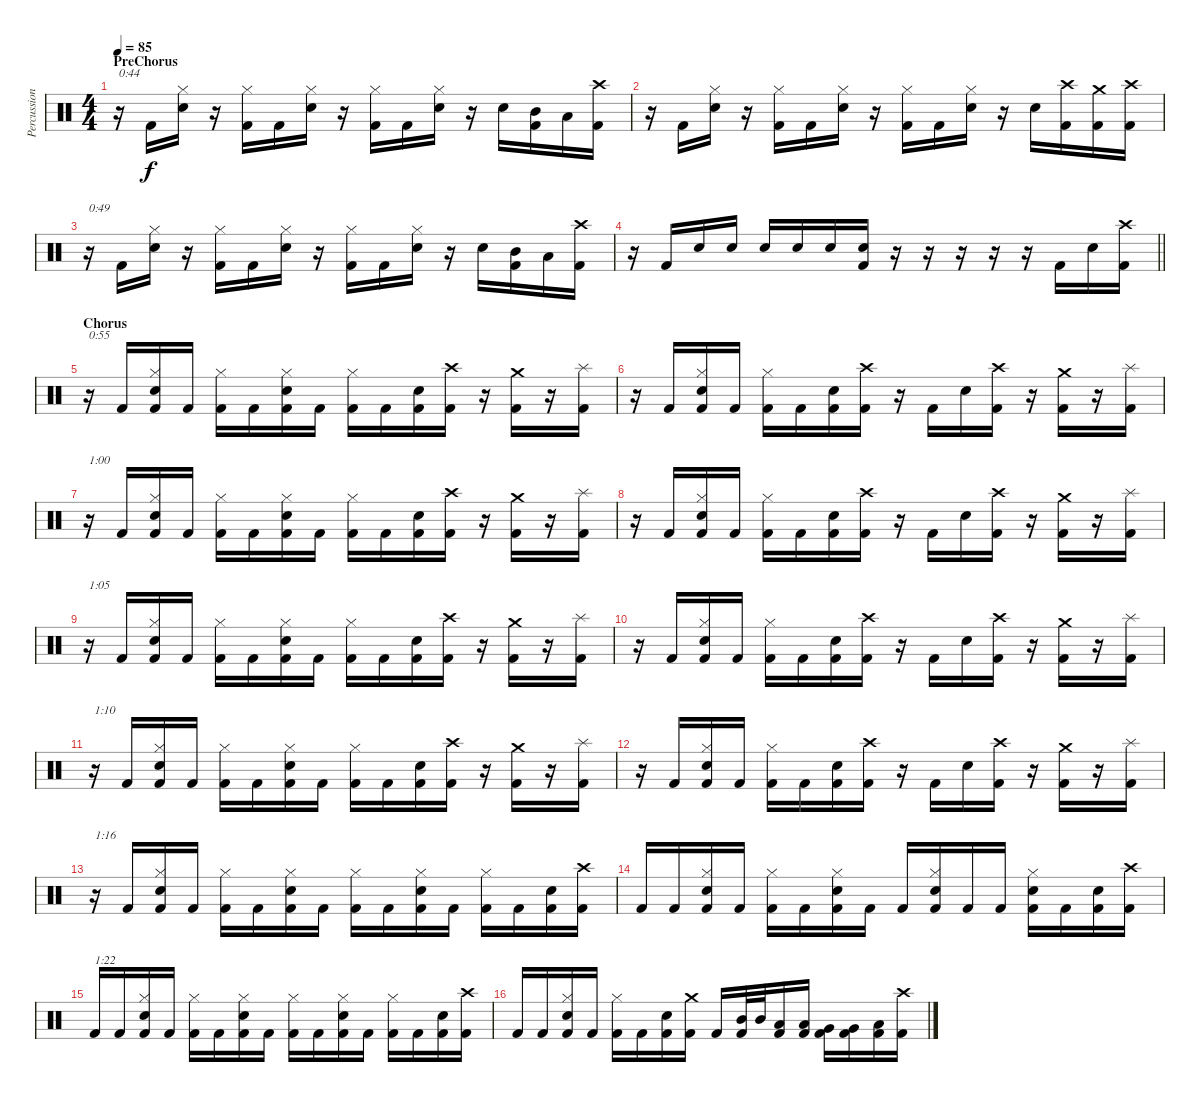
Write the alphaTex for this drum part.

\track ("Percussion" "Percussion") {instrument percussion}
\staff {score}
\articulation defaults
\ts (4 4)
\section ("" "PreChorus")
\tempo 85
\clef neutral
\ks c
r.16{txt "0:44" dy f} "Kick (hit) 2".16 ("Hi-Hat (closed)" "Snare (hit) 2").16 r.16 ("Hi-Hat (closed)" "Kick (hit) 2").16 "Kick (hit) 2".16 ("Hi-Hat (closed)" "Snare (hit) 2").16 r.16 ("Hi-Hat (closed)" "Kick (hit) 2").16 "Kick (hit) 2".16 ("Hi-Hat (closed)" "Snare (hit) 2").16 r.16 "Snare (hit) 2".16 ("Mid Tom (hit)" "Kick (hit) 2").16 "Low Tom (hit)".16 ("Crash high (hit)" "Kick (hit) 2").16 |
r.16 "Kick (hit) 2".16 ("Hi-Hat (closed)" "Snare (hit) 2").16 r.16 ("Hi-Hat (closed)" "Kick (hit) 2").16 "Kick (hit) 2".16 ("Hi-Hat (closed)" "Snare (hit) 2").16 r.16 ("Hi-Hat (closed)" "Kick (hit) 2").16 "Kick (hit) 2".16 ("Hi-Hat (closed)" "Snare (hit) 2").16 r.16 "Snare (hit) 2".16 ("Crash high (hit)" "Kick (hit) 2").16 ("Crash medium (hit)" "Kick (hit) 2").16 ("Crash high (hit)" "Kick (hit) 2").16 |
r.16{txt "0:49"} "Kick (hit) 2".16 ("Hi-Hat (closed)" "Snare (hit) 2").16 r.16 ("Hi-Hat (closed)" "Kick (hit) 2").16 "Kick (hit) 2".16 ("Hi-Hat (closed)" "Snare (hit) 2").16 r.16 ("Hi-Hat (closed)" "Kick (hit) 2").16 "Kick (hit) 2".16 ("Hi-Hat (closed)" "Snare (hit) 2").16 r.16 "Snare (hit) 2".16 ("Mid Tom (hit)" "Kick (hit) 2").16 "Low Tom (hit)".16 ("Crash high (hit)" "Kick (hit) 2").16 |
\barLineRight lightlight
r.16 "Kick (hit) 2".16 "Snare (hit) 2".16 "Snare (hit) 2".16 "Snare (hit) 2".16 "Snare (hit) 2".16 "Snare (hit) 2".16 ("Snare (hit) 2" "Kick (hit) 2").16 r.16 r.16 r.16 r.16 r.16 "Kick (hit) 2".16 "Snare (hit) 2".16 ("Crash high (hit)" "Kick (hit) 2").16 |
\section ("" "Chorus")
r.16{txt "0:55"} "Kick (hit) 2".16 ("Hi-Hat (closed)" "Snare (hit) 2" "Kick (hit) 2").16 "Kick (hit) 2".16 ("Hi-Hat (closed)" "Kick (hit) 2").16 "Kick (hit) 2".16 ("Hi-Hat (closed)" "Snare (hit) 2" "Kick (hit) 2").16 "Kick (hit) 2".16 ("Hi-Hat (closed)" "Kick (hit) 2").16 "Kick (hit) 2".16 ("Snare (hit) 2" "Kick (hit) 2").16 ("Crash high (hit)" "Kick (hit) 2").16 r.16 ("Crash medium (hit)" "Kick (hit) 2").16 r.16 ("Splash (hit)" "Kick (hit) 2").16 |
r.16 "Kick (hit) 2".16 ("Hi-Hat (closed)" "Snare (hit) 2" "Kick (hit) 2").16 "Kick (hit) 2".16 ("Hi-Hat (closed)" "Kick (hit) 2").16 "Kick (hit) 2".16 ("Snare (hit) 2" "Kick (hit) 2").16 ("Crash high (hit)" "Kick (hit) 2").16 r.16 "Kick (hit) 2".16 "Snare (hit) 2".16 ("Crash high (hit)" "Kick (hit) 2").16 r.16 ("Crash medium (hit)" "Kick (hit) 2").16 r.16 ("Splash (hit)" "Kick (hit) 2").16 |
r.16{txt "1:00"} "Kick (hit) 2".16 ("Hi-Hat (closed)" "Snare (hit) 2" "Kick (hit) 2").16 "Kick (hit) 2".16 ("Hi-Hat (closed)" "Kick (hit) 2").16 "Kick (hit) 2".16 ("Hi-Hat (closed)" "Snare (hit) 2" "Kick (hit) 2").16 "Kick (hit) 2".16 ("Hi-Hat (closed)" "Kick (hit) 2").16 "Kick (hit) 2".16 ("Snare (hit) 2" "Kick (hit) 2").16 ("Crash high (hit)" "Kick (hit) 2").16 r.16 ("Crash medium (hit)" "Kick (hit) 2").16 r.16 ("Splash (hit)" "Kick (hit) 2").16 |
r.16 "Kick (hit) 2".16 ("Hi-Hat (closed)" "Snare (hit) 2" "Kick (hit) 2").16 "Kick (hit) 2".16 ("Hi-Hat (closed)" "Kick (hit) 2").16 "Kick (hit) 2".16 ("Snare (hit) 2" "Kick (hit) 2").16 ("Crash high (hit)" "Kick (hit) 2").16 r.16 "Kick (hit) 2".16 "Snare (hit) 2".16 ("Crash high (hit)" "Kick (hit) 2").16 r.16 ("Crash medium (hit)" "Kick (hit) 2").16 r.16 ("Splash (hit)" "Kick (hit) 2").16 |
r.16{txt "1:05"} "Kick (hit) 2".16 ("Hi-Hat (closed)" "Snare (hit) 2" "Kick (hit) 2").16 "Kick (hit) 2".16 ("Hi-Hat (closed)" "Kick (hit) 2").16 "Kick (hit) 2".16 ("Hi-Hat (closed)" "Snare (hit) 2" "Kick (hit) 2").16 "Kick (hit) 2".16 ("Hi-Hat (closed)" "Kick (hit) 2").16 "Kick (hit) 2".16 ("Snare (hit) 2" "Kick (hit) 2").16 ("Crash high (hit)" "Kick (hit) 2").16 r.16 ("Crash medium (hit)" "Kick (hit) 2").16 r.16 ("Splash (hit)" "Kick (hit) 2").16 |
r.16 "Kick (hit) 2".16 ("Hi-Hat (closed)" "Snare (hit) 2" "Kick (hit) 2").16 "Kick (hit) 2".16 ("Hi-Hat (closed)" "Kick (hit) 2").16 "Kick (hit) 2".16 ("Snare (hit) 2" "Kick (hit) 2").16 ("Crash high (hit)" "Kick (hit) 2").16 r.16 "Kick (hit) 2".16 "Snare (hit) 2".16 ("Crash high (hit)" "Kick (hit) 2").16 r.16 ("Crash medium (hit)" "Kick (hit) 2").16 r.16 ("Splash (hit)" "Kick (hit) 2").16 |
r.16{txt "1:10"} "Kick (hit) 2".16 ("Hi-Hat (closed)" "Snare (hit) 2" "Kick (hit) 2").16 "Kick (hit) 2".16 ("Hi-Hat (closed)" "Kick (hit) 2").16 "Kick (hit) 2".16 ("Hi-Hat (closed)" "Snare (hit) 2" "Kick (hit) 2").16 "Kick (hit) 2".16 ("Hi-Hat (closed)" "Kick (hit) 2").16 "Kick (hit) 2".16 ("Snare (hit) 2" "Kick (hit) 2").16 ("Crash high (hit)" "Kick (hit) 2").16 r.16 ("Crash medium (hit)" "Kick (hit) 2").16 r.16 ("Splash (hit)" "Kick (hit) 2").16 |
r.16 "Kick (hit) 2".16 ("Hi-Hat (closed)" "Snare (hit) 2" "Kick (hit) 2").16 "Kick (hit) 2".16 ("Hi-Hat (closed)" "Kick (hit) 2").16 "Kick (hit) 2".16 ("Snare (hit) 2" "Kick (hit) 2").16 ("Crash high (hit)" "Kick (hit) 2").16 r.16 "Kick (hit) 2".16 "Snare (hit) 2".16 ("Crash high (hit)" "Kick (hit) 2").16 r.16 ("Crash medium (hit)" "Kick (hit) 2").16 r.16 ("Splash (hit)" "Kick (hit) 2").16 |
r.16{txt "1:16"} "Kick (hit) 2".16 ("Hi-Hat (closed)" "Snare (hit) 2" "Kick (hit) 2").16 "Kick (hit) 2".16 ("Hi-Hat (closed)" "Kick (hit) 2").16 "Kick (hit) 2".16 ("Hi-Hat (closed)" "Snare (hit) 2" "Kick (hit) 2").16 "Kick (hit) 2".16 ("Hi-Hat (closed)" "Kick (hit) 2").16 "Kick (hit) 2".16 ("Hi-Hat (closed)" "Snare (hit) 2" "Kick (hit) 2").16 "Kick (hit) 2".16 ("Hi-Hat (closed)" "Kick (hit) 2").16 "Kick (hit) 2".16 ("Snare (hit) 2" "Kick (hit) 2").16 ("Crash high (hit)" "Kick (hit) 2").16 |
"Kick (hit) 2".16 "Kick (hit) 2".16 ("Hi-Hat (closed)" "Snare (hit) 2" "Kick (hit) 2").16 "Kick (hit) 2".16 ("Hi-Hat (closed)" "Kick (hit) 2").16 "Kick (hit) 2".16 ("Hi-Hat (closed)" "Snare (hit) 2" "Kick (hit) 2").16 "Kick (hit) 2".16 "Kick (hit) 2".16 ("Hi-Hat (closed)" "Snare (hit) 2" "Kick (hit) 2").16 "Kick (hit) 2".16 "Kick (hit) 2".16 ("Hi-Hat (closed)" "Snare (hit) 2" "Kick (hit) 2").16 "Kick (hit) 2".16 ("Snare (hit) 2" "Kick (hit) 2").16 ("Crash high (hit)" "Kick (hit) 2").16 |
"Kick (hit) 2".16{txt "1:22"} "Kick (hit) 2".16 ("Hi-Hat (closed)" "Snare (hit) 2" "Kick (hit) 2").16 "Kick (hit) 2".16 ("Hi-Hat (closed)" "Kick (hit) 2").16 "Kick (hit) 2".16 ("Hi-Hat (closed)" "Snare (hit) 2" "Kick (hit) 2").16 "Kick (hit) 2".16 ("Hi-Hat (closed)" "Kick (hit) 2").16 "Kick (hit) 2".16 ("Hi-Hat (closed)" "Snare (hit) 2" "Kick (hit) 2").16 "Kick (hit) 2".16 ("Hi-Hat (closed)" "Kick (hit) 2").16 "Kick (hit) 2".16 ("Snare (hit) 2" "Kick (hit) 2").16 ("Crash high (hit)" "Kick (hit) 2").16 |
"Kick (hit) 2".16 "Kick (hit) 2".16 ("Hi-Hat (closed)" "Snare (hit) 2" "Kick (hit) 2").16 "Kick (hit) 2".16 ("Hi-Hat (closed)" "Kick (hit) 2").16 "Kick (hit) 2".16 ("Snare (hit) 2" "Kick (hit) 2").16 ("Crash medium (hit)" "Kick (hit) 2").16 "Kick (hit) 2".16 ("Mid Tom (hit)" "Kick (hit) 2").32 "Mid Tom (hit)".32 ("Low Tom (hit)" "Kick (hit) 2").16 ("Low Tom (hit)" "Kick (hit) 2").16 ("Very Low Tom (hit)" "Kick (hit) 2").16 ("Very Low Tom (hit)" "Kick (hit) 2").16 ("Low Floor Tom (hit)" "Kick (hit) 2").16 ("Crash high (hit)" "Kick (hit) 2").16
